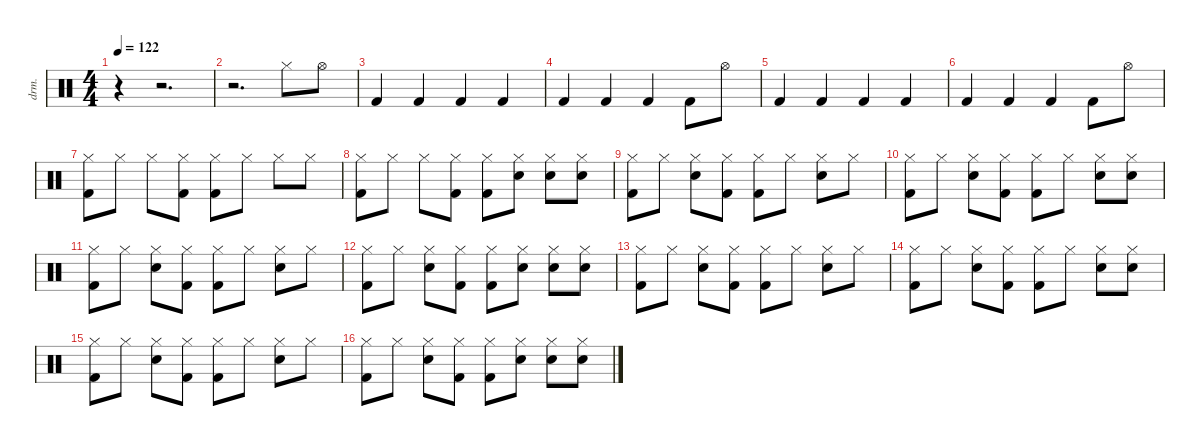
\defaultSystemsLayout 4
\hideDynamics
\bracketExtendMode nobrackets
\track ("Drumkit" "drm.") {defaultSystemsLayout 4 instrument percussion}
\staff {score}
\articulation defaults
\ts (4 4)
\tempo 122
\clef neutral
\ks c
r.4{dy f beam Down} r.2{d beam Down} |
r.2{d beam Down} "Hi-Hat (closed)".8{beam Down} "Hi-Hat (open)".8{beam Down} |
"Kick (hit) 2".4{beam Up} "Kick (hit) 2".4{beam Up} "Kick (hit) 2".4{beam Up} "Kick (hit) 2".4{beam Up} |
"Kick (hit) 2".4{beam Up} "Kick (hit) 2".4{beam Up} "Kick (hit) 2".4{beam Up} "Kick (hit) 2".8{beam Down} "Hi-Hat (open)".8{beam Down} |
"Kick (hit) 2".4{beam Up} "Kick (hit) 2".4{beam Up} "Kick (hit) 2".4{beam Up} "Kick (hit) 2".4{beam Up} |
"Kick (hit) 2".4{beam Up} "Kick (hit) 2".4{beam Up} "Kick (hit) 2".4{beam Up} "Kick (hit) 2".8{beam Down} "Hi-Hat (open)".8{beam Down} |
("Hi-Hat (closed)" "Kick (hit) 2").8{beam Down} "Hi-Hat (closed)".8{beam Down} "Hi-Hat (closed)".8{beam Down} ("Hi-Hat (closed)" "Kick (hit) 2").8{beam Down} ("Hi-Hat (closed)" "Kick (hit) 2").8{beam Down} "Hi-Hat (closed)".8{beam Down} "Hi-Hat (closed)".8{beam Down} "Hi-Hat (closed)".8{beam Down} |
("Hi-Hat (closed)" "Kick (hit) 2").8{beam Down} "Hi-Hat (closed)".8{beam Down} "Hi-Hat (closed)".8{beam Down} ("Hi-Hat (closed)" "Kick (hit) 2").8{beam Down} ("Hi-Hat (closed)" "Kick (hit) 2").8{beam Down} ("Hi-Hat (closed)" "Snare (hit) 2").8{beam Down} ("Hi-Hat (closed)" "Snare (hit) 2").8{beam Down} ("Hi-Hat (closed)" "Snare (hit) 2").8{beam Down} |
("Hi-Hat (closed)" "Kick (hit) 2").8{beam Down} "Hi-Hat (closed)".8{beam Down} ("Hi-Hat (closed)" "Snare (hit) 2").8{beam Down} ("Hi-Hat (closed)" "Kick (hit) 2").8{beam Down} ("Hi-Hat (closed)" "Kick (hit) 2").8{beam Down} "Hi-Hat (closed)".8{beam Down} ("Hi-Hat (closed)" "Snare (hit) 2").8{beam Down} "Hi-Hat (closed)".8{beam Down} |
("Hi-Hat (closed)" "Kick (hit) 2").8{beam Down} "Hi-Hat (closed)".8{beam Down} ("Hi-Hat (closed)" "Snare (hit) 2").8{beam Down} ("Hi-Hat (closed)" "Kick (hit) 2").8{beam Down} ("Hi-Hat (closed)" "Kick (hit) 2").8{beam Down} "Hi-Hat (closed)".8{beam Down} ("Hi-Hat (closed)" "Snare (hit) 2").8{beam Down} ("Hi-Hat (closed)" "Snare (hit) 2").8{beam Down} |
("Hi-Hat (closed)" "Kick (hit) 2").8{beam Down} "Hi-Hat (closed)".8{beam Down} ("Hi-Hat (closed)" "Snare (hit) 2").8{beam Down} ("Hi-Hat (closed)" "Kick (hit) 2").8{beam Down} ("Hi-Hat (closed)" "Kick (hit) 2").8{beam Down} "Hi-Hat (closed)".8{beam Down} ("Hi-Hat (closed)" "Snare (hit) 2").8{beam Down} "Hi-Hat (closed)".8{beam Down} |
("Hi-Hat (closed)" "Kick (hit) 2").8{beam Down} "Hi-Hat (closed)".8{beam Down} ("Hi-Hat (closed)" "Snare (hit) 2").8{beam Down} ("Hi-Hat (closed)" "Kick (hit) 2").8{beam Down} ("Hi-Hat (closed)" "Kick (hit) 2").8{beam Down} ("Hi-Hat (closed)" "Snare (hit) 2").8{beam Down} ("Hi-Hat (closed)" "Snare (hit) 2").8{beam Down} ("Hi-Hat (closed)" "Snare (hit) 2").8{beam Down} |
("Hi-Hat (closed)" "Kick (hit) 2").8{beam Down} "Hi-Hat (closed)".8{beam Down} ("Hi-Hat (closed)" "Snare (hit) 2").8{beam Down} ("Hi-Hat (closed)" "Kick (hit) 2").8{beam Down} ("Hi-Hat (closed)" "Kick (hit) 2").8{beam Down} "Hi-Hat (closed)".8{beam Down} ("Hi-Hat (closed)" "Snare (hit) 2").8{beam Down} "Hi-Hat (closed)".8{beam Down} |
("Hi-Hat (closed)" "Kick (hit) 2").8{beam Down} "Hi-Hat (closed)".8{beam Down} ("Hi-Hat (closed)" "Snare (hit) 2").8{beam Down} ("Hi-Hat (closed)" "Kick (hit) 2").8{beam Down} ("Hi-Hat (closed)" "Kick (hit) 2").8{beam Down} "Hi-Hat (closed)".8{beam Down} ("Hi-Hat (closed)" "Snare (hit) 2").8{beam Down} ("Hi-Hat (closed)" "Snare (hit) 2").8{beam Down} |
("Hi-Hat (closed)" "Kick (hit) 2").8{beam Down} "Hi-Hat (closed)".8{beam Down} ("Hi-Hat (closed)" "Snare (hit) 2").8{beam Down} ("Hi-Hat (closed)" "Kick (hit) 2").8{beam Down} ("Hi-Hat (closed)" "Kick (hit) 2").8{beam Down} "Hi-Hat (closed)".8{beam Down} ("Hi-Hat (closed)" "Snare (hit) 2").8{beam Down} "Hi-Hat (closed)".8{beam Down} |
("Hi-Hat (closed)" "Kick (hit) 2").8{beam Down} "Hi-Hat (closed)".8{beam Down} ("Hi-Hat (closed)" "Snare (hit) 2").8{beam Down} ("Hi-Hat (closed)" "Kick (hit) 2").8{beam Down} ("Hi-Hat (closed)" "Kick (hit) 2").8{beam Down} ("Hi-Hat (closed)" "Snare (hit) 2").8{beam Down} ("Hi-Hat (closed)" "Snare (hit) 2").8{beam Down} ("Hi-Hat (closed)" "Snare (hit) 2").8{beam Down}
